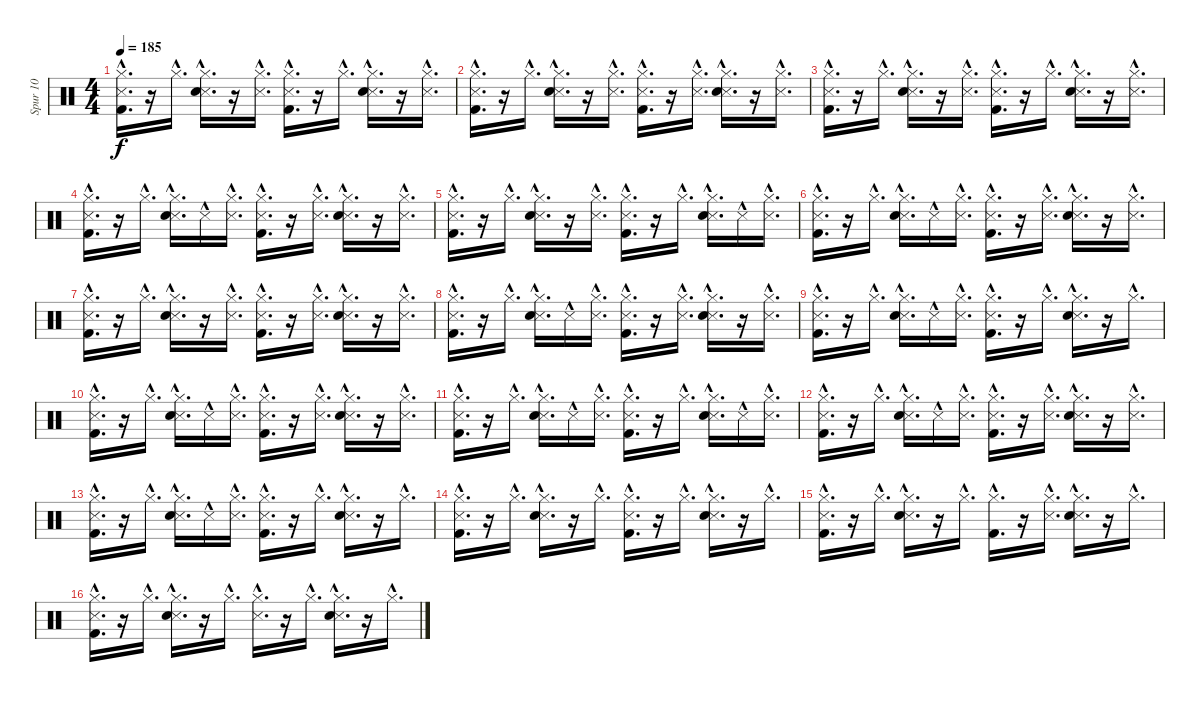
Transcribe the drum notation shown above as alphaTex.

\track ("Spur 10" "Spur 10") {instrument percussion}
\staff {score}
\articulation defaults
\ts (4 4)
\tempo 185
\clef neutral
\ks c
("Metronome (hit)"{hac} "Hi-Hat (closed)"{hac} "Kick (hit) 2"{hac}).16{d dy f} r.16 "Hi-Hat (closed)"{hac}.16{d} ("Metronome (hit)"{hac} "Hi-Hat (closed)"{hac} "Snare (hit) 2"{hac}).16{d} r.16 ("Metronome (hit)"{hac} "Hi-Hat (closed)"{hac}).16{d} ("Metronome (hit)"{hac} "Hi-Hat (closed)"{hac} "Kick (hit) 2"{hac}).16{d} r.16 "Hi-Hat (closed)"{hac}.16{d} ("Metronome (hit)"{hac} "Hi-Hat (closed)"{hac} "Snare (hit) 2"{hac}).16{d} r.16 ("Metronome (hit)"{hac} "Hi-Hat (closed)"{hac}).16{d} |
("Metronome (hit)"{hac} "Kick (hit) 2"{hac} "Hi-Hat (closed)"{hac}).16{d} r.16 "Hi-Hat (closed)"{hac}.16{d} ("Metronome (hit)"{hac} "Snare (hit) 2"{hac} "Hi-Hat (closed)"{hac}).16{d} r.16 ("Metronome (hit)"{hac} "Hi-Hat (closed)"{hac}).16{d} ("Metronome (hit)"{hac} "Kick (hit) 2"{hac} "Hi-Hat (closed)"{hac}).16{d} r.16 ("Metronome (hit)"{hac} "Hi-Hat (closed)"{hac}).16{d} ("Metronome (hit)"{hac} "Snare (hit) 2"{hac} "Hi-Hat (closed)"{hac}).16{d} r.16 ("Metronome (hit)"{hac} "Hi-Hat (closed)"{hac}).16{d} |
("Metronome (hit)"{hac} "Kick (hit) 2"{hac} "Hi-Hat (closed)"{hac}).16{d} r.16 "Hi-Hat (closed)"{hac}.16{d} ("Metronome (hit)"{hac} "Snare (hit) 2"{hac} "Hi-Hat (closed)"{hac}).16{d} r.16 ("Metronome (hit)"{hac} "Hi-Hat (closed)"{hac}).16{d} ("Metronome (hit)"{hac} "Kick (hit) 2"{hac} "Hi-Hat (closed)"{hac}).16{d} r.16 "Hi-Hat (closed)"{hac}.16{d} ("Metronome (hit)"{hac} "Snare (hit) 2"{hac} "Hi-Hat (closed)"{hac}).16{d} r.16 ("Metronome (hit)"{hac} "Hi-Hat (closed)"{hac}).16{d} |
("Metronome (hit)"{hac} "Kick (hit) 2"{hac} "Hi-Hat (closed)"{hac}).16{d} r.16 "Hi-Hat (closed)"{hac}.16{d} ("Metronome (hit)"{hac} "Snare (hit) 2"{hac} "Hi-Hat (closed)"{hac}).16{d} "Metronome (hit)"{hac}.16 ("Metronome (hit)"{hac} "Hi-Hat (closed)"{hac}).16{d} ("Metronome (hit)"{hac} "Kick (hit) 2"{hac} "Hi-Hat (closed)"{hac}).16{d} r.16 ("Metronome (hit)"{hac} "Hi-Hat (closed)"{hac}).16{d} ("Metronome (hit)"{hac} "Snare (hit) 2"{hac} "Hi-Hat (closed)"{hac}).16{d} r.16 ("Metronome (hit)"{hac} "Hi-Hat (closed)"{hac}).16{d} |
("Metronome (hit)"{hac} "Hi-Hat (closed)"{hac} "Kick (hit) 2"{hac}).16{d} r.16 "Hi-Hat (closed)"{hac}.16{d} ("Metronome (hit)"{hac} "Hi-Hat (closed)"{hac} "Snare (hit) 2"{hac}).16{d} r.16 ("Metronome (hit)"{hac} "Hi-Hat (closed)"{hac}).16{d} ("Metronome (hit)"{hac} "Hi-Hat (closed)"{hac} "Kick (hit) 2"{hac}).16{d} r.16 "Hi-Hat (closed)"{hac}.16{d} ("Metronome (hit)"{hac} "Hi-Hat (closed)"{hac} "Snare (hit) 2"{hac}).16{d} "Metronome (hit)"{hac}.16 ("Metronome (hit)"{hac} "Hi-Hat (closed)"{hac}).16{d} |
("Metronome (hit)"{hac} "Kick (hit) 2"{hac} "Hi-Hat (closed)"{hac}).16{d} r.16 "Hi-Hat (closed)"{hac}.16{d} ("Metronome (hit)"{hac} "Snare (hit) 2"{hac} "Hi-Hat (closed)"{hac}).16{d} "Metronome (hit)"{hac}.16 ("Metronome (hit)"{hac} "Hi-Hat (closed)"{hac}).16{d} ("Metronome (hit)"{hac} "Kick (hit) 2"{hac} "Hi-Hat (closed)"{hac}).16{d} r.16 ("Metronome (hit)"{hac} "Hi-Hat (closed)"{hac}).16{d} ("Metronome (hit)"{hac} "Snare (hit) 2"{hac} "Hi-Hat (closed)"{hac}).16{d} r.16 ("Metronome (hit)"{hac} "Hi-Hat (closed)"{hac}).16{d} |
("Metronome (hit)"{hac} "Kick (hit) 2"{hac} "Hi-Hat (closed)"{hac}).16{d} r.16 "Hi-Hat (closed)"{hac}.16{d} ("Metronome (hit)"{hac} "Snare (hit) 2"{hac} "Hi-Hat (closed)"{hac}).16{d} r.16 ("Metronome (hit)"{hac} "Hi-Hat (closed)"{hac}).16{d} ("Metronome (hit)"{hac} "Kick (hit) 2"{hac} "Hi-Hat (closed)"{hac}).16{d} r.16 ("Metronome (hit)"{hac} "Hi-Hat (closed)"{hac}).16{d} ("Metronome (hit)"{hac} "Snare (hit) 2"{hac} "Hi-Hat (closed)"{hac}).16{d} r.16 ("Metronome (hit)"{hac} "Hi-Hat (closed)"{hac}).16{d} |
("Metronome (hit)"{hac} "Kick (hit) 2"{hac} "Hi-Hat (closed)"{hac}).16{d} r.16 "Hi-Hat (closed)"{hac}.16{d} ("Metronome (hit)"{hac} "Snare (hit) 2"{hac} "Hi-Hat (closed)"{hac}).16{d} "Metronome (hit)"{hac}.16 ("Metronome (hit)"{hac} "Hi-Hat (closed)"{hac}).16{d} ("Metronome (hit)"{hac} "Kick (hit) 2"{hac} "Hi-Hat (closed)"{hac}).16{d} r.16 ("Metronome (hit)"{hac} "Hi-Hat (closed)"{hac}).16{d} ("Metronome (hit)"{hac} "Snare (hit) 2"{hac} "Hi-Hat (closed)"{hac}).16{d} r.16 ("Metronome (hit)"{hac} "Hi-Hat (closed)"{hac}).16{d} |
("Metronome (hit)"{hac} "Hi-Hat (closed)"{hac} "Kick (hit) 2"{hac}).16{d} r.16 "Hi-Hat (closed)"{hac}.16{d} ("Metronome (hit)"{hac} "Hi-Hat (closed)"{hac} "Snare (hit) 2"{hac}).16{d} "Metronome (hit)"{hac}.16 ("Metronome (hit)"{hac} "Hi-Hat (closed)"{hac}).16{d} ("Metronome (hit)"{hac} "Hi-Hat (closed)"{hac} "Kick (hit) 2"{hac}).16{d} r.16 "Hi-Hat (closed)"{hac}.16{d} ("Metronome (hit)"{hac} "Hi-Hat (closed)"{hac} "Snare (hit) 2"{hac}).16{d} r.16 "Hi-Hat (closed)"{hac}.16{d} |
("Metronome (hit)"{hac} "Kick (hit) 2"{hac} "Hi-Hat (closed)"{hac}).16{d} r.16 "Hi-Hat (closed)"{hac}.16{d} ("Metronome (hit)"{hac} "Snare (hit) 2"{hac} "Hi-Hat (closed)"{hac}).16{d} "Metronome (hit)"{hac}.16 ("Metronome (hit)"{hac} "Hi-Hat (closed)"{hac}).16{d} ("Metronome (hit)"{hac} "Kick (hit) 2"{hac} "Hi-Hat (closed)"{hac}).16{d} r.16 ("Metronome (hit)"{hac} "Hi-Hat (closed)"{hac}).16{d} ("Metronome (hit)"{hac} "Snare (hit) 2"{hac} "Hi-Hat (closed)"{hac}).16{d} r.16 ("Metronome (hit)"{hac} "Hi-Hat (closed)"{hac}).16{d} |
("Metronome (hit)"{hac} "Kick (hit) 2"{hac} "Hi-Hat (closed)"{hac}).16{d} r.16 "Hi-Hat (closed)"{hac}.16{d} ("Metronome (hit)"{hac} "Snare (hit) 2"{hac} "Hi-Hat (closed)"{hac}).16{d} "Metronome (hit)"{hac}.16 ("Metronome (hit)"{hac} "Hi-Hat (closed)"{hac}).16{d} ("Metronome (hit)"{hac} "Kick (hit) 2"{hac} "Hi-Hat (closed)"{hac}).16{d} r.16 "Hi-Hat (closed)"{hac}.16{d} ("Metronome (hit)"{hac} "Snare (hit) 2"{hac} "Hi-Hat (closed)"{hac}).16{d} "Metronome (hit)"{hac}.16 ("Metronome (hit)"{hac} "Hi-Hat (closed)"{hac}).16{d} |
("Metronome (hit)"{hac} "Kick (hit) 2"{hac} "Hi-Hat (closed)"{hac}).16{d} r.16 "Hi-Hat (closed)"{hac}.16{d} ("Metronome (hit)"{hac} "Snare (hit) 2"{hac} "Hi-Hat (closed)"{hac}).16{d} "Metronome (hit)"{hac}.16 ("Metronome (hit)"{hac} "Hi-Hat (closed)"{hac}).16{d} ("Metronome (hit)"{hac} "Kick (hit) 2"{hac} "Hi-Hat (closed)"{hac}).16{d} r.16 ("Metronome (hit)"{hac} "Hi-Hat (closed)"{hac}).16{d} ("Metronome (hit)"{hac} "Snare (hit) 2"{hac} "Hi-Hat (closed)"{hac}).16{d} r.16 ("Metronome (hit)"{hac} "Hi-Hat (closed)"{hac}).16{d} |
("Metronome (hit)"{hac} "Hi-Hat (closed)"{hac} "Kick (hit) 2"{hac}).16{d} r.16 "Hi-Hat (closed)"{hac}.16{d} ("Metronome (hit)"{hac} "Hi-Hat (closed)"{hac} "Snare (hit) 2"{hac}).16{d} "Metronome (hit)"{hac}.16 ("Metronome (hit)"{hac} "Hi-Hat (closed)"{hac}).16{d} ("Metronome (hit)"{hac} "Hi-Hat (closed)"{hac} "Kick (hit) 2"{hac}).16{d} r.16 "Hi-Hat (closed)"{hac}.16{d} ("Metronome (hit)"{hac} "Hi-Hat (closed)"{hac} "Snare (hit) 2"{hac}).16{d} r.16 "Hi-Hat (closed)"{hac}.16{d} |
("Metronome (hit)"{hac} "Kick (hit) 2"{hac} "Hi-Hat (closed)"{hac}).16{d} r.16 "Hi-Hat (closed)"{hac}.16{d} ("Metronome (hit)"{hac} "Snare (hit) 2"{hac} "Hi-Hat (closed)"{hac}).16{d} r.16 "Hi-Hat (closed)"{hac}.16{d} ("Metronome (hit)"{hac} "Kick (hit) 2"{hac} "Hi-Hat (closed)"{hac}).16{d} r.16 "Hi-Hat (closed)"{hac}.16{d} ("Metronome (hit)"{hac} "Snare (hit) 2"{hac} "Hi-Hat (closed)"{hac}).16{d} r.16 "Hi-Hat (closed)"{hac}.16{d} |
("Metronome (hit)" "Kick (hit) 2"{hac} "Hi-Hat (closed)"{hac}).16{d} r.16 "Hi-Hat (closed)"{hac}.16{d} ("Metronome (hit)" "Snare (hit) 2"{hac} "Hi-Hat (closed)"{hac}).16{d} r.16 "Hi-Hat (closed)"{hac}.16{d} ("Kick (hit) 2"{hac} "Hi-Hat (closed)"{hac}).16{d} r.16 ("Metronome (hit)" "Hi-Hat (closed)"{hac}).16{d} ("Metronome (hit)" "Hi-Hat (closed)"{hac} "Snare (hit) 2"{hac}).16{d} r.16 "Hi-Hat (closed)"{hac}.16{d} |
("Metronome (hit)" "Hi-Hat (closed)"{hac} "Kick (hit) 2"{hac}).16{d} r.16 "Hi-Hat (closed)"{hac}.16{d} ("Metronome (hit)" "Snare (hit) 2"{hac} "Hi-Hat (closed)"{hac}).16{d} r.16 "Hi-Hat (closed)"{hac}.16{d} ("Metronome (hit)" "Hi-Hat (closed)"{hac}).16{d} r.16 "Hi-Hat (closed)"{hac}.16{d} ("Metronome (hit)" "Snare (hit) 2"{hac} "Hi-Hat (closed)"{hac}).16{d} r.16 "Hi-Hat (closed)"{hac}.16{d}
